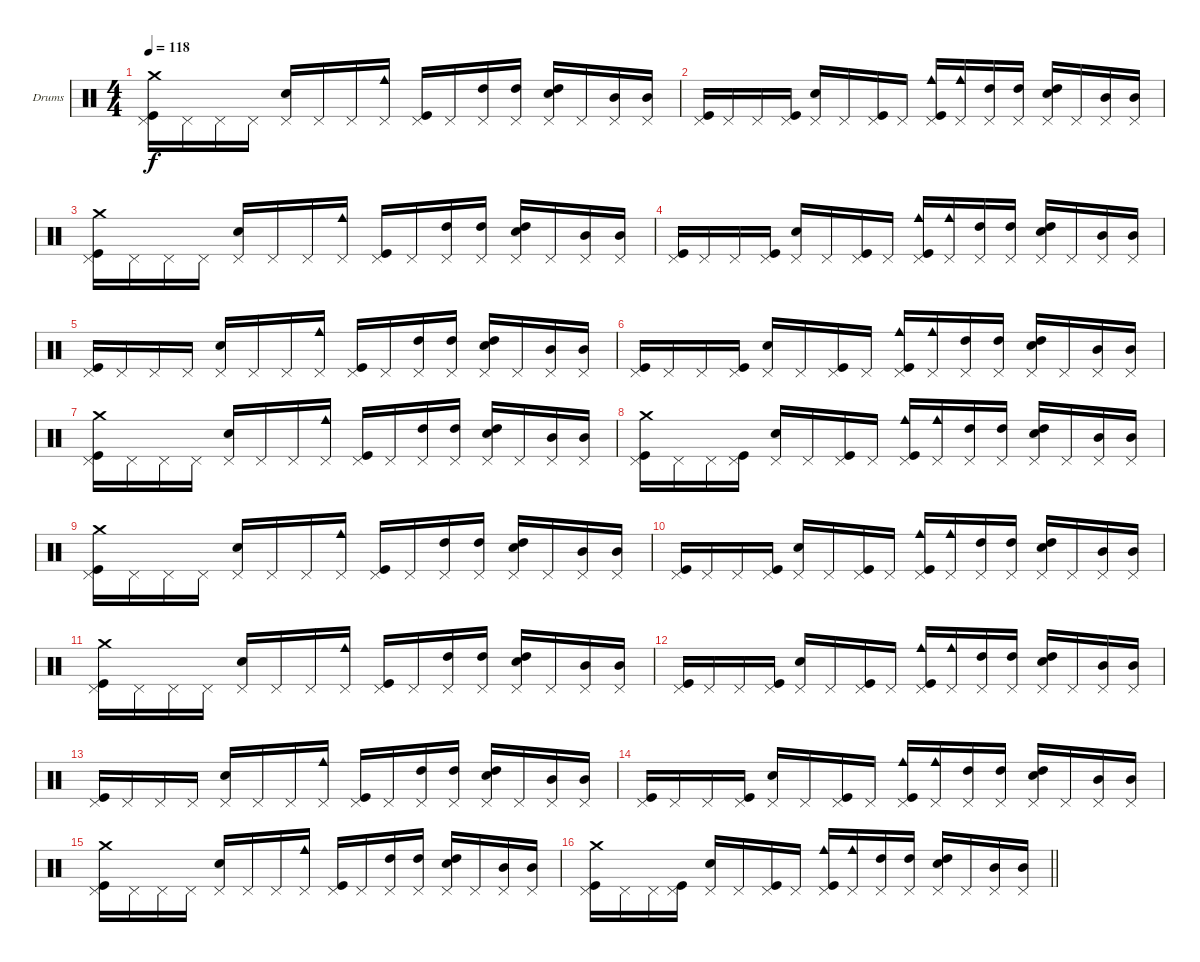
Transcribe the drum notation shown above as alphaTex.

\bracketExtendMode groupsimilarinstruments
\firstSystemTrackNameOrientation horizontal
\otherSystemsTrackNameOrientation horizontal
\track ("Уданые" "Drums") {instrument percussion}
\staff {score}
\articulation defaults
\ts (4 4)
\tempo 118
\clef neutral
\ks c
("Pedal Hi-Hat (hit)" "Kick (hit)" "Crash medium (hit)").16{dy f} "Pedal Hi-Hat (hit)".16 "Pedal Hi-Hat (hit)".16 "Pedal Hi-Hat (hit)".16 ("Pedal Hi-Hat (hit)" "Snare (hit) 2").16 "Pedal Hi-Hat (hit)".16 "Pedal Hi-Hat (hit)".16 ("Pedal Hi-Hat (hit)" "Cowbell medium (hit)").16 ("Pedal Hi-Hat (hit)" "Kick (hit)").16 "Pedal Hi-Hat (hit)".16 ("Pedal Hi-Hat (hit)" "High Tom (hit)").16 ("Pedal Hi-Hat (hit)" "High Tom (hit)").16 ("Pedal Hi-Hat (hit)" "High Tom (hit)" "Snare (hit) 2").16 "Pedal Hi-Hat (hit)".16 ("Pedal Hi-Hat (hit)" "Mid Tom (hit)").16 ("Pedal Hi-Hat (hit)" "Mid Tom (hit)").16 |
("Pedal Hi-Hat (hit)" "Kick (hit)").16 "Pedal Hi-Hat (hit)".16 "Pedal Hi-Hat (hit)".16 ("Pedal Hi-Hat (hit)" "Kick (hit)").16 ("Pedal Hi-Hat (hit)" "Snare (hit) 2").16 "Pedal Hi-Hat (hit)".16 ("Pedal Hi-Hat (hit)" "Kick (hit)").16 "Pedal Hi-Hat (hit)".16 ("Pedal Hi-Hat (hit)" "Kick (hit)" "Cowbell medium (hit)").16 ("Pedal Hi-Hat (hit)" "Cowbell medium (hit)").16 ("Pedal Hi-Hat (hit)" "High Tom (hit)").16 ("Pedal Hi-Hat (hit)" "High Tom (hit)").16 ("Pedal Hi-Hat (hit)" "High Tom (hit)" "Snare (hit) 2").16 "Pedal Hi-Hat (hit)".16 ("Pedal Hi-Hat (hit)" "Mid Tom (hit)").16 ("Pedal Hi-Hat (hit)" "Mid Tom (hit)").16 |
("Pedal Hi-Hat (hit)" "Kick (hit)" "Crash medium (hit)").16 "Pedal Hi-Hat (hit)".16 "Pedal Hi-Hat (hit)".16 "Pedal Hi-Hat (hit)".16 ("Pedal Hi-Hat (hit)" "Snare (hit) 2").16 "Pedal Hi-Hat (hit)".16 "Pedal Hi-Hat (hit)".16 ("Pedal Hi-Hat (hit)" "Cowbell medium (hit)").16 ("Pedal Hi-Hat (hit)" "Kick (hit)").16 "Pedal Hi-Hat (hit)".16 ("Pedal Hi-Hat (hit)" "High Tom (hit)").16 ("Pedal Hi-Hat (hit)" "High Tom (hit)").16 ("Pedal Hi-Hat (hit)" "High Tom (hit)" "Snare (hit) 2").16 "Pedal Hi-Hat (hit)".16 ("Pedal Hi-Hat (hit)" "Mid Tom (hit)").16 ("Pedal Hi-Hat (hit)" "Mid Tom (hit)").16 |
("Pedal Hi-Hat (hit)" "Kick (hit)").16 "Pedal Hi-Hat (hit)".16 "Pedal Hi-Hat (hit)".16 ("Pedal Hi-Hat (hit)" "Kick (hit)").16 ("Pedal Hi-Hat (hit)" "Snare (hit) 2").16 "Pedal Hi-Hat (hit)".16 ("Pedal Hi-Hat (hit)" "Kick (hit)").16 "Pedal Hi-Hat (hit)".16 ("Pedal Hi-Hat (hit)" "Kick (hit)" "Cowbell medium (hit)").16 ("Pedal Hi-Hat (hit)" "Cowbell medium (hit)").16 ("Pedal Hi-Hat (hit)" "High Tom (hit)").16 ("Pedal Hi-Hat (hit)" "High Tom (hit)").16 ("Pedal Hi-Hat (hit)" "High Tom (hit)" "Snare (hit) 2").16 "Pedal Hi-Hat (hit)".16 ("Pedal Hi-Hat (hit)" "Mid Tom (hit)").16 ("Pedal Hi-Hat (hit)" "Mid Tom (hit)").16 |
("Pedal Hi-Hat (hit)" "Kick (hit)").16 "Pedal Hi-Hat (hit)".16 "Pedal Hi-Hat (hit)".16 "Pedal Hi-Hat (hit)".16 ("Pedal Hi-Hat (hit)" "Snare (hit) 2").16 "Pedal Hi-Hat (hit)".16 "Pedal Hi-Hat (hit)".16 ("Pedal Hi-Hat (hit)" "Cowbell medium (hit)").16 ("Pedal Hi-Hat (hit)" "Kick (hit)").16 "Pedal Hi-Hat (hit)".16 ("Pedal Hi-Hat (hit)" "High Tom (hit)").16 ("Pedal Hi-Hat (hit)" "High Tom (hit)").16 ("Pedal Hi-Hat (hit)" "High Tom (hit)" "Snare (hit) 2").16 "Pedal Hi-Hat (hit)".16 ("Pedal Hi-Hat (hit)" "Mid Tom (hit)").16 ("Pedal Hi-Hat (hit)" "Mid Tom (hit)").16 |
("Pedal Hi-Hat (hit)" "Kick (hit)").16 "Pedal Hi-Hat (hit)".16 "Pedal Hi-Hat (hit)".16 ("Pedal Hi-Hat (hit)" "Kick (hit)").16 ("Pedal Hi-Hat (hit)" "Snare (hit) 2").16 "Pedal Hi-Hat (hit)".16 ("Pedal Hi-Hat (hit)" "Kick (hit)").16 "Pedal Hi-Hat (hit)".16 ("Pedal Hi-Hat (hit)" "Kick (hit)" "Cowbell medium (hit)").16 ("Pedal Hi-Hat (hit)" "Cowbell medium (hit)").16 ("Pedal Hi-Hat (hit)" "High Tom (hit)").16 ("Pedal Hi-Hat (hit)" "High Tom (hit)").16 ("Pedal Hi-Hat (hit)" "High Tom (hit)" "Snare (hit) 2").16 "Pedal Hi-Hat (hit)".16 ("Pedal Hi-Hat (hit)" "Mid Tom (hit)").16 ("Pedal Hi-Hat (hit)" "Mid Tom (hit)").16 |
("Pedal Hi-Hat (hit)" "Kick (hit)" "Crash medium (hit)").16 "Pedal Hi-Hat (hit)".16 "Pedal Hi-Hat (hit)".16 "Pedal Hi-Hat (hit)".16 ("Pedal Hi-Hat (hit)" "Snare (hit) 2").16 "Pedal Hi-Hat (hit)".16 "Pedal Hi-Hat (hit)".16 ("Pedal Hi-Hat (hit)" "Cowbell medium (hit)").16 ("Pedal Hi-Hat (hit)" "Kick (hit)").16 "Pedal Hi-Hat (hit)".16 ("Pedal Hi-Hat (hit)" "High Tom (hit)").16 ("Pedal Hi-Hat (hit)" "High Tom (hit)").16 ("Pedal Hi-Hat (hit)" "High Tom (hit)" "Snare (hit) 2").16 "Pedal Hi-Hat (hit)".16 ("Pedal Hi-Hat (hit)" "Mid Tom (hit)").16 ("Pedal Hi-Hat (hit)" "Mid Tom (hit)").16 |
("Pedal Hi-Hat (hit)" "Kick (hit)" "Crash medium (hit)").16 "Pedal Hi-Hat (hit)".16 "Pedal Hi-Hat (hit)".16 ("Pedal Hi-Hat (hit)" "Kick (hit)").16 ("Pedal Hi-Hat (hit)" "Snare (hit) 2").16 "Pedal Hi-Hat (hit)".16 ("Pedal Hi-Hat (hit)" "Kick (hit)").16 "Pedal Hi-Hat (hit)".16 ("Pedal Hi-Hat (hit)" "Kick (hit)" "Cowbell medium (hit)").16 ("Pedal Hi-Hat (hit)" "Cowbell medium (hit)").16 ("Pedal Hi-Hat (hit)" "High Tom (hit)").16 ("Pedal Hi-Hat (hit)" "High Tom (hit)").16 ("Pedal Hi-Hat (hit)" "High Tom (hit)" "Snare (hit) 2").16 "Pedal Hi-Hat (hit)".16 ("Pedal Hi-Hat (hit)" "Mid Tom (hit)").16 ("Pedal Hi-Hat (hit)" "Mid Tom (hit)").16 |
("Pedal Hi-Hat (hit)" "Kick (hit)" "Crash medium (hit)").16 "Pedal Hi-Hat (hit)".16 "Pedal Hi-Hat (hit)".16 "Pedal Hi-Hat (hit)".16 ("Pedal Hi-Hat (hit)" "Snare (hit) 2").16 "Pedal Hi-Hat (hit)".16 "Pedal Hi-Hat (hit)".16 ("Pedal Hi-Hat (hit)" "Cowbell medium (hit)").16 ("Pedal Hi-Hat (hit)" "Kick (hit)").16 "Pedal Hi-Hat (hit)".16 ("Pedal Hi-Hat (hit)" "High Tom (hit)").16 ("Pedal Hi-Hat (hit)" "High Tom (hit)").16 ("Pedal Hi-Hat (hit)" "High Tom (hit)" "Snare (hit) 2").16 "Pedal Hi-Hat (hit)".16 ("Pedal Hi-Hat (hit)" "Mid Tom (hit)").16 ("Pedal Hi-Hat (hit)" "Mid Tom (hit)").16 |
("Pedal Hi-Hat (hit)" "Kick (hit)").16 "Pedal Hi-Hat (hit)".16 "Pedal Hi-Hat (hit)".16 ("Pedal Hi-Hat (hit)" "Kick (hit)").16 ("Pedal Hi-Hat (hit)" "Snare (hit) 2").16 "Pedal Hi-Hat (hit)".16 ("Pedal Hi-Hat (hit)" "Kick (hit)").16 "Pedal Hi-Hat (hit)".16 ("Pedal Hi-Hat (hit)" "Kick (hit)" "Cowbell medium (hit)").16 ("Pedal Hi-Hat (hit)" "Cowbell medium (hit)").16 ("Pedal Hi-Hat (hit)" "High Tom (hit)").16 ("Pedal Hi-Hat (hit)" "High Tom (hit)").16 ("Pedal Hi-Hat (hit)" "High Tom (hit)" "Snare (hit) 2").16 "Pedal Hi-Hat (hit)".16 ("Pedal Hi-Hat (hit)" "Mid Tom (hit)").16 ("Pedal Hi-Hat (hit)" "Mid Tom (hit)").16 |
("Pedal Hi-Hat (hit)" "Kick (hit)" "Crash medium (hit)").16 "Pedal Hi-Hat (hit)".16 "Pedal Hi-Hat (hit)".16 "Pedal Hi-Hat (hit)".16 ("Pedal Hi-Hat (hit)" "Snare (hit) 2").16 "Pedal Hi-Hat (hit)".16 "Pedal Hi-Hat (hit)".16 ("Pedal Hi-Hat (hit)" "Cowbell medium (hit)").16 ("Pedal Hi-Hat (hit)" "Kick (hit)").16 "Pedal Hi-Hat (hit)".16 ("Pedal Hi-Hat (hit)" "High Tom (hit)").16 ("Pedal Hi-Hat (hit)" "High Tom (hit)").16 ("Pedal Hi-Hat (hit)" "High Tom (hit)" "Snare (hit) 2").16 "Pedal Hi-Hat (hit)".16 ("Pedal Hi-Hat (hit)" "Mid Tom (hit)").16 ("Pedal Hi-Hat (hit)" "Mid Tom (hit)").16 |
("Pedal Hi-Hat (hit)" "Kick (hit)").16 "Pedal Hi-Hat (hit)".16 "Pedal Hi-Hat (hit)".16 ("Pedal Hi-Hat (hit)" "Kick (hit)").16 ("Pedal Hi-Hat (hit)" "Snare (hit) 2").16 "Pedal Hi-Hat (hit)".16 ("Pedal Hi-Hat (hit)" "Kick (hit)").16 "Pedal Hi-Hat (hit)".16 ("Pedal Hi-Hat (hit)" "Kick (hit)" "Cowbell medium (hit)").16 ("Pedal Hi-Hat (hit)" "Cowbell medium (hit)").16 ("Pedal Hi-Hat (hit)" "High Tom (hit)").16 ("Pedal Hi-Hat (hit)" "High Tom (hit)").16 ("Pedal Hi-Hat (hit)" "High Tom (hit)" "Snare (hit) 2").16 "Pedal Hi-Hat (hit)".16 ("Pedal Hi-Hat (hit)" "Mid Tom (hit)").16 ("Pedal Hi-Hat (hit)" "Mid Tom (hit)").16 |
("Pedal Hi-Hat (hit)" "Kick (hit)").16 "Pedal Hi-Hat (hit)".16 "Pedal Hi-Hat (hit)".16 "Pedal Hi-Hat (hit)".16 ("Pedal Hi-Hat (hit)" "Snare (hit) 2").16 "Pedal Hi-Hat (hit)".16 "Pedal Hi-Hat (hit)".16 ("Pedal Hi-Hat (hit)" "Cowbell medium (hit)").16 ("Pedal Hi-Hat (hit)" "Kick (hit)").16 "Pedal Hi-Hat (hit)".16 ("Pedal Hi-Hat (hit)" "High Tom (hit)").16 ("Pedal Hi-Hat (hit)" "High Tom (hit)").16 ("Pedal Hi-Hat (hit)" "High Tom (hit)" "Snare (hit) 2").16 "Pedal Hi-Hat (hit)".16 ("Pedal Hi-Hat (hit)" "Mid Tom (hit)").16 ("Pedal Hi-Hat (hit)" "Mid Tom (hit)").16 |
("Pedal Hi-Hat (hit)" "Kick (hit)").16 "Pedal Hi-Hat (hit)".16 "Pedal Hi-Hat (hit)".16 ("Pedal Hi-Hat (hit)" "Kick (hit)").16 ("Pedal Hi-Hat (hit)" "Snare (hit) 2").16 "Pedal Hi-Hat (hit)".16 ("Pedal Hi-Hat (hit)" "Kick (hit)").16 "Pedal Hi-Hat (hit)".16 ("Pedal Hi-Hat (hit)" "Kick (hit)" "Cowbell medium (hit)").16 ("Pedal Hi-Hat (hit)" "Cowbell medium (hit)").16 ("Pedal Hi-Hat (hit)" "High Tom (hit)").16 ("Pedal Hi-Hat (hit)" "High Tom (hit)").16 ("Pedal Hi-Hat (hit)" "High Tom (hit)" "Snare (hit) 2").16 "Pedal Hi-Hat (hit)".16 ("Pedal Hi-Hat (hit)" "Mid Tom (hit)").16 ("Pedal Hi-Hat (hit)" "Mid Tom (hit)").16 |
("Pedal Hi-Hat (hit)" "Kick (hit)" "Crash medium (hit)").16 "Pedal Hi-Hat (hit)".16 "Pedal Hi-Hat (hit)".16 "Pedal Hi-Hat (hit)".16 ("Pedal Hi-Hat (hit)" "Snare (hit) 2").16 "Pedal Hi-Hat (hit)".16 "Pedal Hi-Hat (hit)".16 ("Pedal Hi-Hat (hit)" "Cowbell medium (hit)").16 ("Pedal Hi-Hat (hit)" "Kick (hit)").16 "Pedal Hi-Hat (hit)".16 ("Pedal Hi-Hat (hit)" "High Tom (hit)").16 ("Pedal Hi-Hat (hit)" "High Tom (hit)").16 ("Pedal Hi-Hat (hit)" "High Tom (hit)" "Snare (hit) 2").16 "Pedal Hi-Hat (hit)".16 ("Pedal Hi-Hat (hit)" "Mid Tom (hit)").16 ("Pedal Hi-Hat (hit)" "Mid Tom (hit)").16 |
\barLineRight lightlight
("Pedal Hi-Hat (hit)" "Kick (hit)" "Crash medium (hit)").16 "Pedal Hi-Hat (hit)".16 "Pedal Hi-Hat (hit)".16 ("Pedal Hi-Hat (hit)" "Kick (hit)").16 ("Pedal Hi-Hat (hit)" "Snare (hit) 2").16 "Pedal Hi-Hat (hit)".16 ("Pedal Hi-Hat (hit)" "Kick (hit)").16 "Pedal Hi-Hat (hit)".16 ("Pedal Hi-Hat (hit)" "Kick (hit)" "Cowbell medium (hit)").16 ("Pedal Hi-Hat (hit)" "Cowbell medium (hit)").16 ("Pedal Hi-Hat (hit)" "High Tom (hit)").16 ("Pedal Hi-Hat (hit)" "High Tom (hit)").16 ("Pedal Hi-Hat (hit)" "High Tom (hit)" "Snare (hit) 2").16 "Pedal Hi-Hat (hit)".16 ("Pedal Hi-Hat (hit)" "Mid Tom (hit)").16 ("Pedal Hi-Hat (hit)" "Mid Tom (hit)").16
